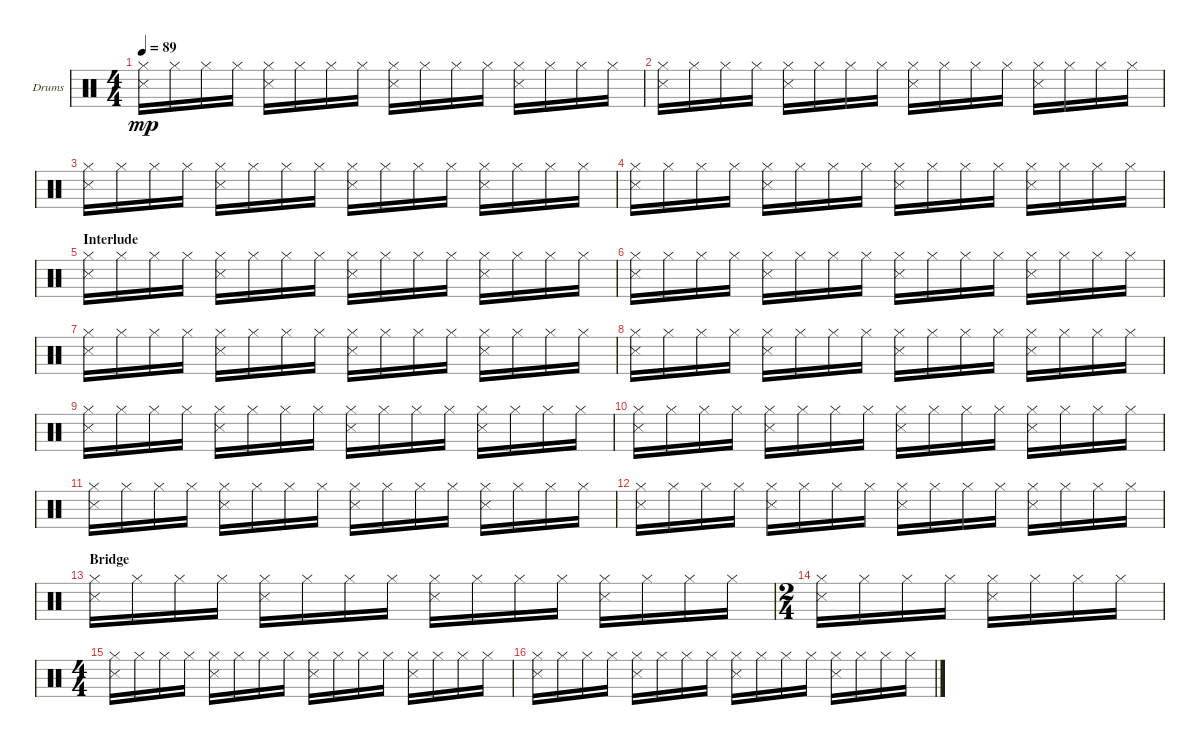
\bracketExtendMode groupsimilarinstruments
\firstSystemTrackNameOrientation horizontal
\otherSystemsTrackNameOrientation horizontal
\track ("Drumkit" "Drums") {instrument percussion}
\staff {score}
\articulation defaults
\ts (4 4)
\tempo 89
\clef neutral
\ks c
("Hi-Hat (closed)" "Snare (side stick) 3").16{dy mp} "Hi-Hat (closed)".16 "Hi-Hat (closed)".16 "Hi-Hat (closed)".16 ("Hi-Hat (closed)" "Snare (side stick) 3").16 "Hi-Hat (closed)".16 "Hi-Hat (closed)".16 "Hi-Hat (closed)".16 ("Hi-Hat (closed)" "Snare (side stick) 3").16 "Hi-Hat (closed)".16 "Hi-Hat (closed)".16 "Hi-Hat (closed)".16 ("Hi-Hat (closed)" "Snare (side stick) 3").16 "Hi-Hat (closed)".16 "Hi-Hat (closed)".16 "Hi-Hat (closed)".16 |
("Hi-Hat (closed)" "Snare (side stick) 3").16 "Hi-Hat (closed)".16 "Hi-Hat (closed)".16 "Hi-Hat (closed)".16 ("Hi-Hat (closed)" "Snare (side stick) 3").16 "Hi-Hat (closed)".16 "Hi-Hat (closed)".16 "Hi-Hat (closed)".16 ("Hi-Hat (closed)" "Snare (side stick) 3").16 "Hi-Hat (closed)".16 "Hi-Hat (closed)".16 "Hi-Hat (closed)".16 ("Hi-Hat (closed)" "Snare (side stick) 3").16 "Hi-Hat (closed)".16 "Hi-Hat (closed)".16 "Hi-Hat (closed)".16 |
("Hi-Hat (closed)" "Snare (side stick) 3").16 "Hi-Hat (closed)".16 "Hi-Hat (closed)".16 "Hi-Hat (closed)".16 ("Hi-Hat (closed)" "Snare (side stick) 3").16 "Hi-Hat (closed)".16 "Hi-Hat (closed)".16 "Hi-Hat (closed)".16 ("Hi-Hat (closed)" "Snare (side stick) 3").16 "Hi-Hat (closed)".16 "Hi-Hat (closed)".16 "Hi-Hat (closed)".16 ("Hi-Hat (closed)" "Snare (side stick) 3").16 "Hi-Hat (closed)".16 "Hi-Hat (closed)".16 "Hi-Hat (closed)".16 |
("Hi-Hat (closed)" "Snare (side stick) 3").16 "Hi-Hat (closed)".16 "Hi-Hat (closed)".16 "Hi-Hat (closed)".16 ("Hi-Hat (closed)" "Snare (side stick) 3").16 "Hi-Hat (closed)".16 "Hi-Hat (closed)".16 "Hi-Hat (closed)".16 ("Hi-Hat (closed)" "Snare (side stick) 3").16 "Hi-Hat (closed)".16 "Hi-Hat (closed)".16 "Hi-Hat (closed)".16 ("Hi-Hat (closed)" "Snare (side stick) 3").16 "Hi-Hat (closed)".16 "Hi-Hat (closed)".16 "Hi-Hat (closed)".16 |
\section ("" "Interlude")
("Hi-Hat (closed)" "Snare (side stick) 3").16 "Hi-Hat (closed)".16 "Hi-Hat (closed)".16 "Hi-Hat (closed)".16 ("Hi-Hat (closed)" "Snare (side stick) 3").16 "Hi-Hat (closed)".16 "Hi-Hat (closed)".16 "Hi-Hat (closed)".16 ("Hi-Hat (closed)" "Snare (side stick) 3").16 "Hi-Hat (closed)".16 "Hi-Hat (closed)".16 "Hi-Hat (closed)".16 ("Hi-Hat (closed)" "Snare (side stick) 3").16 "Hi-Hat (closed)".16 "Hi-Hat (closed)".16 "Hi-Hat (closed)".16 |
("Hi-Hat (closed)" "Snare (side stick) 3").16 "Hi-Hat (closed)".16 "Hi-Hat (closed)".16 "Hi-Hat (closed)".16 ("Hi-Hat (closed)" "Snare (side stick) 3").16 "Hi-Hat (closed)".16 "Hi-Hat (closed)".16 "Hi-Hat (closed)".16 ("Hi-Hat (closed)" "Snare (side stick) 3").16 "Hi-Hat (closed)".16 "Hi-Hat (closed)".16 "Hi-Hat (closed)".16 ("Hi-Hat (closed)" "Snare (side stick) 3").16 "Hi-Hat (closed)".16 "Hi-Hat (closed)".16 "Hi-Hat (closed)".16 |
("Hi-Hat (closed)" "Snare (side stick) 3").16 "Hi-Hat (closed)".16 "Hi-Hat (closed)".16 "Hi-Hat (closed)".16 ("Hi-Hat (closed)" "Snare (side stick) 3").16 "Hi-Hat (closed)".16 "Hi-Hat (closed)".16 "Hi-Hat (closed)".16 ("Hi-Hat (closed)" "Snare (side stick) 3").16 "Hi-Hat (closed)".16 "Hi-Hat (closed)".16 "Hi-Hat (closed)".16 ("Hi-Hat (closed)" "Snare (side stick) 3").16 "Hi-Hat (closed)".16 "Hi-Hat (closed)".16 "Hi-Hat (closed)".16 |
("Hi-Hat (closed)" "Snare (side stick) 3").16 "Hi-Hat (closed)".16 "Hi-Hat (closed)".16 "Hi-Hat (closed)".16 ("Hi-Hat (closed)" "Snare (side stick) 3").16 "Hi-Hat (closed)".16 "Hi-Hat (closed)".16 "Hi-Hat (closed)".16 ("Hi-Hat (closed)" "Snare (side stick) 3").16 "Hi-Hat (closed)".16 "Hi-Hat (closed)".16 "Hi-Hat (closed)".16 ("Hi-Hat (closed)" "Snare (side stick) 3").16 "Hi-Hat (closed)".16 "Hi-Hat (closed)".16 "Hi-Hat (closed)".16 |
("Hi-Hat (closed)" "Snare (side stick) 3").16 "Hi-Hat (closed)".16 "Hi-Hat (closed)".16 "Hi-Hat (closed)".16 ("Hi-Hat (closed)" "Snare (side stick) 3").16 "Hi-Hat (closed)".16 "Hi-Hat (closed)".16 "Hi-Hat (closed)".16 ("Hi-Hat (closed)" "Snare (side stick) 3").16 "Hi-Hat (closed)".16 "Hi-Hat (closed)".16 "Hi-Hat (closed)".16 ("Hi-Hat (closed)" "Snare (side stick) 3").16 "Hi-Hat (closed)".16 "Hi-Hat (closed)".16 "Hi-Hat (closed)".16 |
("Hi-Hat (closed)" "Snare (side stick) 3").16 "Hi-Hat (closed)".16 "Hi-Hat (closed)".16 "Hi-Hat (closed)".16 ("Hi-Hat (closed)" "Snare (side stick) 3").16 "Hi-Hat (closed)".16 "Hi-Hat (closed)".16 "Hi-Hat (closed)".16 ("Hi-Hat (closed)" "Snare (side stick) 3").16 "Hi-Hat (closed)".16 "Hi-Hat (closed)".16 "Hi-Hat (closed)".16 ("Hi-Hat (closed)" "Snare (side stick) 3").16 "Hi-Hat (closed)".16 "Hi-Hat (closed)".16 "Hi-Hat (closed)".16 |
("Hi-Hat (closed)" "Snare (side stick) 3").16 "Hi-Hat (closed)".16 "Hi-Hat (closed)".16 "Hi-Hat (closed)".16 ("Hi-Hat (closed)" "Snare (side stick) 3").16 "Hi-Hat (closed)".16 "Hi-Hat (closed)".16 "Hi-Hat (closed)".16 ("Hi-Hat (closed)" "Snare (side stick) 3").16 "Hi-Hat (closed)".16 "Hi-Hat (closed)".16 "Hi-Hat (closed)".16 ("Hi-Hat (closed)" "Snare (side stick) 3").16 "Hi-Hat (closed)".16 "Hi-Hat (closed)".16 "Hi-Hat (closed)".16 |
("Hi-Hat (closed)" "Snare (side stick) 3").16 "Hi-Hat (closed)".16 "Hi-Hat (closed)".16 "Hi-Hat (closed)".16 ("Hi-Hat (closed)" "Snare (side stick) 3").16 "Hi-Hat (closed)".16 "Hi-Hat (closed)".16 "Hi-Hat (closed)".16 ("Hi-Hat (closed)" "Snare (side stick) 3").16 "Hi-Hat (closed)".16 "Hi-Hat (closed)".16 "Hi-Hat (closed)".16 ("Hi-Hat (closed)" "Snare (side stick) 3").16 "Hi-Hat (closed)".16 "Hi-Hat (closed)".16 "Hi-Hat (closed)".16 |
\section ("" "Bridge")
("Hi-Hat (closed)" "Snare (side stick) 3").16 "Hi-Hat (closed)".16 "Hi-Hat (closed)".16 "Hi-Hat (closed)".16 ("Hi-Hat (closed)" "Snare (side stick) 3").16 "Hi-Hat (closed)".16 "Hi-Hat (closed)".16 "Hi-Hat (closed)".16 ("Hi-Hat (closed)" "Snare (side stick) 3").16 "Hi-Hat (closed)".16 "Hi-Hat (closed)".16 "Hi-Hat (closed)".16 ("Hi-Hat (closed)" "Snare (side stick) 3").16 "Hi-Hat (closed)".16 "Hi-Hat (closed)".16 "Hi-Hat (closed)".16 |
\ts (2 4)
("Hi-Hat (closed)" "Snare (side stick) 3").16 "Hi-Hat (closed)".16 "Hi-Hat (closed)".16 "Hi-Hat (closed)".16 ("Hi-Hat (closed)" "Snare (side stick) 3").16 "Hi-Hat (closed)".16 "Hi-Hat (closed)".16 "Hi-Hat (closed)".16 |
\ts (4 4)
("Hi-Hat (closed)" "Snare (side stick) 3").16 "Hi-Hat (closed)".16 "Hi-Hat (closed)".16 "Hi-Hat (closed)".16 ("Hi-Hat (closed)" "Snare (side stick) 3").16 "Hi-Hat (closed)".16 "Hi-Hat (closed)".16 "Hi-Hat (closed)".16 ("Hi-Hat (closed)" "Snare (side stick) 3").16 "Hi-Hat (closed)".16 "Hi-Hat (closed)".16 "Hi-Hat (closed)".16 ("Hi-Hat (closed)" "Snare (side stick) 3").16 "Hi-Hat (closed)".16 "Hi-Hat (closed)".16 "Hi-Hat (closed)".16 |
("Hi-Hat (closed)" "Snare (side stick) 3").16 "Hi-Hat (closed)".16 "Hi-Hat (closed)".16 "Hi-Hat (closed)".16 ("Hi-Hat (closed)" "Snare (side stick) 3").16 "Hi-Hat (closed)".16 "Hi-Hat (closed)".16 "Hi-Hat (closed)".16 ("Hi-Hat (closed)" "Snare (side stick) 3").16 "Hi-Hat (closed)".16 "Hi-Hat (closed)".16 "Hi-Hat (closed)".16 ("Hi-Hat (closed)" "Snare (side stick) 3").16 "Hi-Hat (closed)".16 "Hi-Hat (closed)".16 "Hi-Hat (closed)".16
